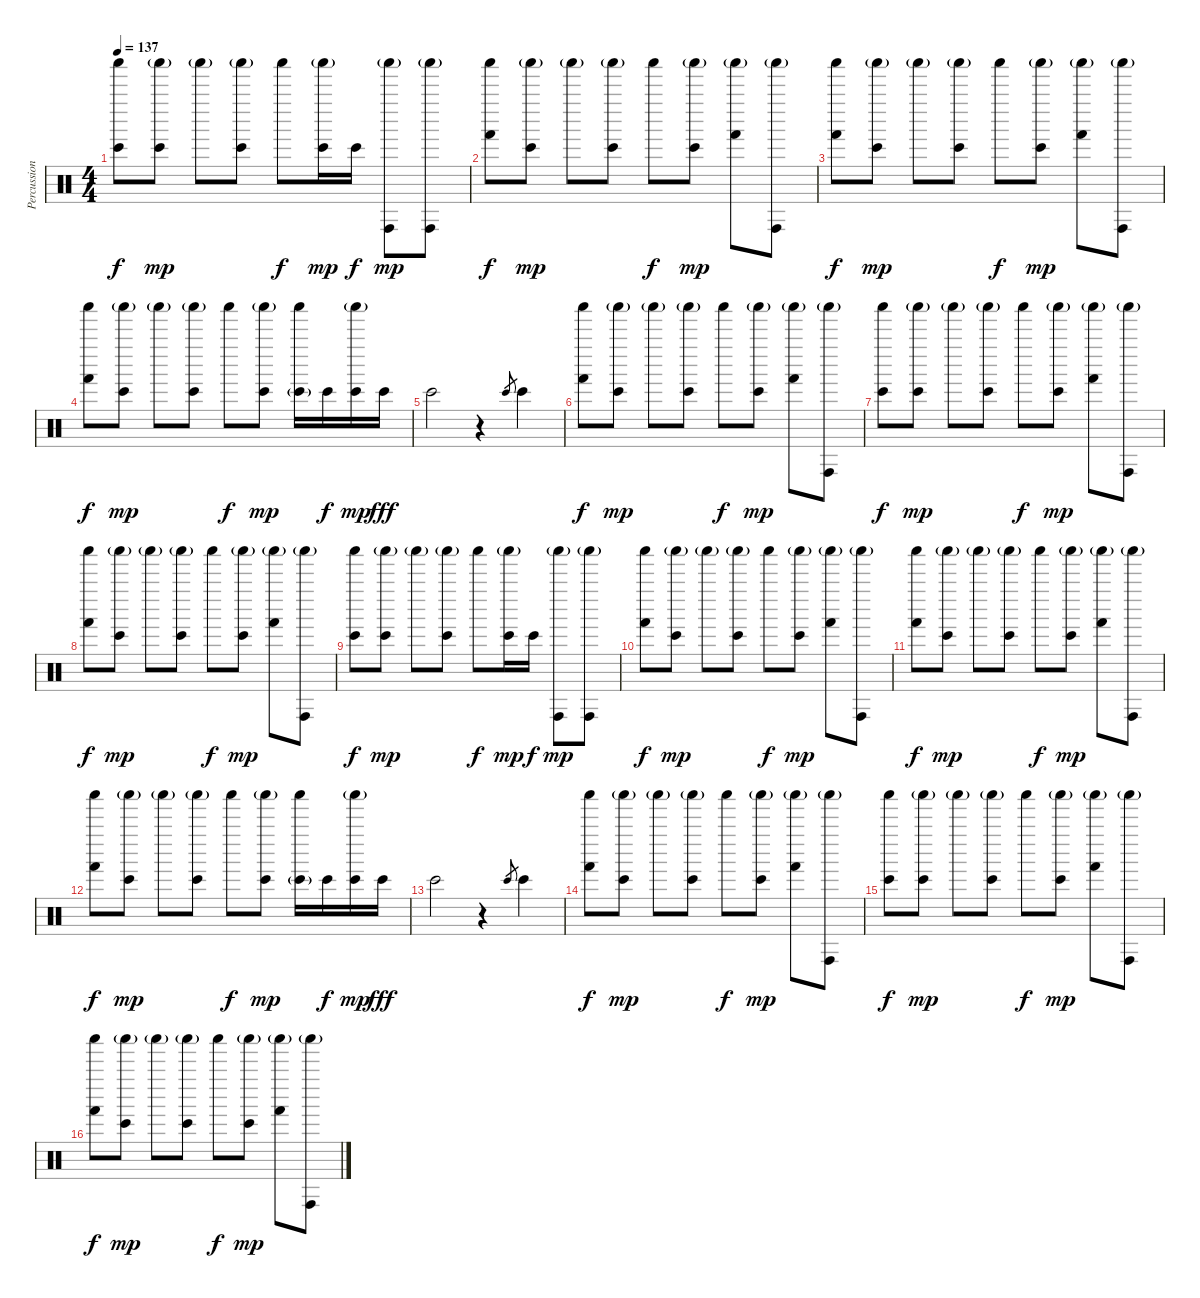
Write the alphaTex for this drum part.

\track ("Percussions" "Percussion") {instrument percussion}
\staff {score}
\articulation defaults
\ts (4 4)
\tempo 137
\clef neutral
\ks c
("Bongo High (hit)" "Shaker (hit)").8{dy f} ("Bongo High (hit)" "Shaker (hit)"{g}).8{dy mp} "Shaker (hit)"{g}.8 ("Bongo High (hit)" "Shaker (hit)"{g}).8 "Shaker (hit)".8{dy f} ("Bongo High (hit)" "Shaker (hit)"{g}).16{dy mp} "Bongo High (hit)".16{dy f} ("Conga high (hit)" "Shaker (hit)"{g}).8{dy mp} ("Conga high (hit)" "Shaker (hit)"{g}).8 |
("Hand (hit)" "Shaker (hit)").8{dy f} ("Bongo High (hit)" "Shaker (hit)"{g}).8{dy mp} "Shaker (hit)"{g}.8 ("Bongo High (hit)" "Shaker (hit)"{g}).8 "Shaker (hit)".8{dy f} ("Bongo High (hit)" "Shaker (hit)"{g}).8{dy mp} ("Hand (hit)" "Shaker (hit)"{g}).8 ("Conga high (hit)" "Shaker (hit)"{g}).8 |
("Hand (hit)" "Shaker (hit)").8{dy f} ("Bongo High (hit)" "Shaker (hit)"{g}).8{dy mp} "Shaker (hit)"{g}.8 ("Bongo High (hit)" "Shaker (hit)"{g}).8 "Shaker (hit)".8{dy f} ("Bongo High (hit)" "Shaker (hit)"{g}).8{dy mp} ("Hand (hit)" "Shaker (hit)"{g}).8 ("Conga high (hit)" "Shaker (hit)"{g}).8 |
("Hand (hit)" "Shaker (hit)").8{dy f} ("Bongo High (hit)" "Shaker (hit)"{g}).8{dy mp} "Shaker (hit)"{g}.8 ("Bongo High (hit)" "Shaker (hit)"{g}).8 "Shaker (hit)".8{dy f} ("Bongo High (hit)" "Shaker (hit)"{g}).8{dy mp} ("Bongo High (hit)"{g} "Shaker (hit)").16 "Bongo High (hit)".16{dy f} ("Bongo High (hit)" "Shaker (hit)"{g}).16{dy mp} "Bongo High (hit)".16{dy fff} |
"Bongo High (hit)".2 r.4 "Bongo High (hit)".8{gr} "Bongo High (hit)".4 |
("Hand (hit)" "Shaker (hit)").8{dy f} ("Bongo High (hit)" "Shaker (hit)"{g}).8{dy mp} "Shaker (hit)"{g}.8 ("Bongo High (hit)" "Shaker (hit)"{g}).8 "Shaker (hit)".8{dy f} ("Bongo High (hit)" "Shaker (hit)"{g}).8{dy mp} ("Hand (hit)" "Shaker (hit)"{g}).8 ("Conga high (hit)" "Shaker (hit)"{g}).8 |
("Bongo High (hit)" "Shaker (hit)").8{dy f} ("Bongo High (hit)" "Shaker (hit)"{g}).8{dy mp} "Shaker (hit)"{g}.8 ("Bongo High (hit)" "Shaker (hit)"{g}).8 "Shaker (hit)".8{dy f} ("Bongo High (hit)" "Shaker (hit)"{g}).8{dy mp} ("Hand (hit)" "Shaker (hit)"{g}).8 ("Conga high (hit)" "Shaker (hit)"{g}).8 |
("Hand (hit)" "Shaker (hit)").8{dy f} ("Bongo High (hit)" "Shaker (hit)"{g}).8{dy mp} "Shaker (hit)"{g}.8 ("Bongo High (hit)" "Shaker (hit)"{g}).8 "Shaker (hit)".8{dy f} ("Bongo High (hit)" "Shaker (hit)"{g}).8{dy mp} ("Hand (hit)" "Shaker (hit)"{g}).8 ("Conga high (hit)" "Shaker (hit)"{g}).8 |
("Bongo High (hit)" "Shaker (hit)").8{dy f} ("Bongo High (hit)" "Shaker (hit)"{g}).8{dy mp} "Shaker (hit)"{g}.8 ("Bongo High (hit)" "Shaker (hit)"{g}).8 "Shaker (hit)".8{dy f} ("Bongo High (hit)" "Shaker (hit)"{g}).16{dy mp} "Bongo High (hit)".16{dy f} ("Conga high (hit)" "Shaker (hit)"{g}).8{dy mp} ("Conga high (hit)" "Shaker (hit)"{g}).8 |
("Hand (hit)" "Shaker (hit)").8{dy f} ("Bongo High (hit)" "Shaker (hit)"{g}).8{dy mp} "Shaker (hit)"{g}.8 ("Bongo High (hit)" "Shaker (hit)"{g}).8 "Shaker (hit)".8{dy f} ("Bongo High (hit)" "Shaker (hit)"{g}).8{dy mp} ("Hand (hit)" "Shaker (hit)"{g}).8 ("Conga high (hit)" "Shaker (hit)"{g}).8 |
("Hand (hit)" "Shaker (hit)").8{dy f} ("Bongo High (hit)" "Shaker (hit)"{g}).8{dy mp} "Shaker (hit)"{g}.8 ("Bongo High (hit)" "Shaker (hit)"{g}).8 "Shaker (hit)".8{dy f} ("Bongo High (hit)" "Shaker (hit)"{g}).8{dy mp} ("Hand (hit)" "Shaker (hit)"{g}).8 ("Conga high (hit)" "Shaker (hit)"{g}).8 |
("Hand (hit)" "Shaker (hit)").8{dy f} ("Bongo High (hit)" "Shaker (hit)"{g}).8{dy mp} "Shaker (hit)"{g}.8 ("Bongo High (hit)" "Shaker (hit)"{g}).8 "Shaker (hit)".8{dy f} ("Bongo High (hit)" "Shaker (hit)"{g}).8{dy mp} ("Bongo High (hit)"{g} "Shaker (hit)").16 "Bongo High (hit)".16{dy f} ("Bongo High (hit)" "Shaker (hit)"{g}).16{dy mp} "Bongo High (hit)".16{dy fff} |
"Bongo High (hit)".2 r.4 "Bongo High (hit)".8{gr} "Bongo High (hit)".4 |
("Hand (hit)" "Shaker (hit)").8{dy f} ("Bongo High (hit)" "Shaker (hit)"{g}).8{dy mp} "Shaker (hit)"{g}.8 ("Bongo High (hit)" "Shaker (hit)"{g}).8 "Shaker (hit)".8{dy f} ("Bongo High (hit)" "Shaker (hit)"{g}).8{dy mp} ("Hand (hit)" "Shaker (hit)"{g}).8 ("Conga high (hit)" "Shaker (hit)"{g}).8 |
("Bongo High (hit)" "Shaker (hit)").8{dy f} ("Bongo High (hit)" "Shaker (hit)"{g}).8{dy mp} "Shaker (hit)"{g}.8 ("Bongo High (hit)" "Shaker (hit)"{g}).8 "Shaker (hit)".8{dy f} ("Bongo High (hit)" "Shaker (hit)"{g}).8{dy mp} ("Hand (hit)" "Shaker (hit)"{g}).8 ("Conga high (hit)" "Shaker (hit)"{g}).8 |
("Hand (hit)" "Shaker (hit)").8{dy f} ("Bongo High (hit)" "Shaker (hit)"{g}).8{dy mp} "Shaker (hit)"{g}.8 ("Bongo High (hit)" "Shaker (hit)"{g}).8 "Shaker (hit)".8{dy f} ("Bongo High (hit)" "Shaker (hit)"{g}).8{dy mp} ("Hand (hit)" "Shaker (hit)"{g}).8 ("Conga high (hit)" "Shaker (hit)"{g}).8
